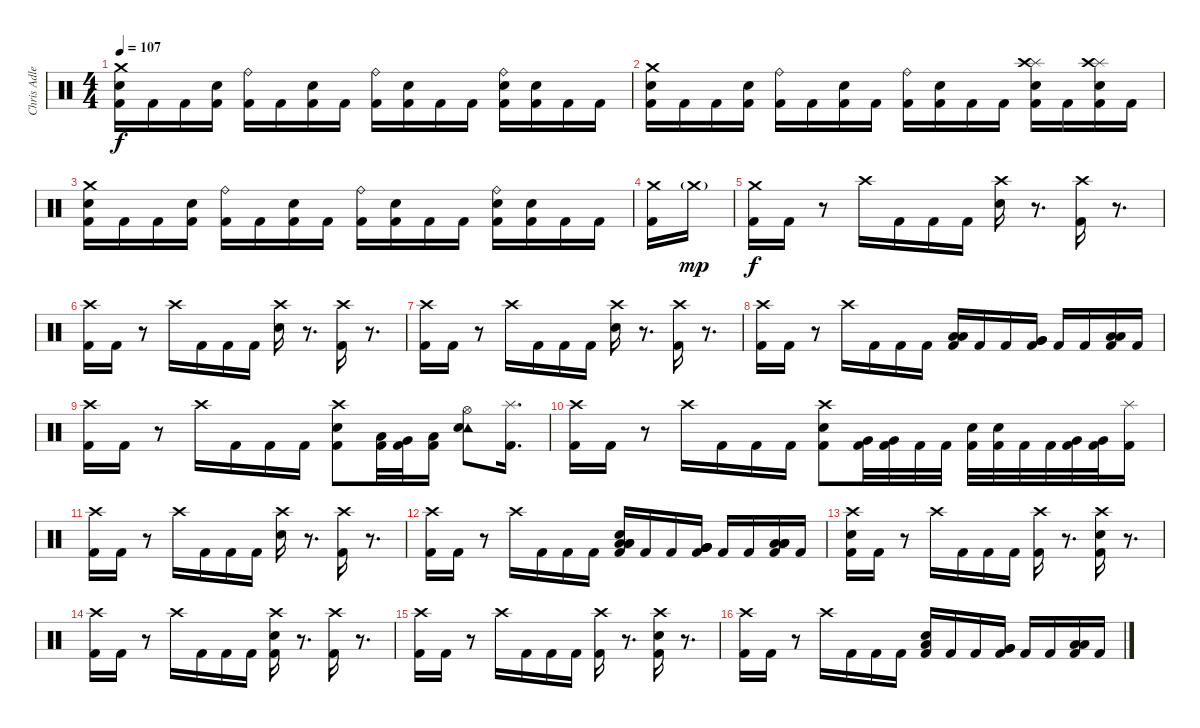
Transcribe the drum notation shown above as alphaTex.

\track ("Chris Adler" "Chris Adle") {instrument percussion}
\staff {score}
\articulation defaults
\ts (4 4)
\tempo 107
\clef neutral
\ks c
("Kick (hit) 2" "Electric Snare (hit)" "Crash medium (hit)").16{dy f} "Kick (hit) 2".16 "Kick (hit) 2".16 ("Kick (hit) 2" "Electric Snare (hit)").16 ("Kick (hit) 2" "Ride (bell)").16 "Kick (hit) 2".16 ("Kick (hit) 2" "Electric Snare (hit)").16 "Kick (hit) 2".16 ("Kick (hit) 2" "Ride (bell)").16 ("Kick (hit) 2" "Electric Snare (hit)").16 "Kick (hit) 2".16 "Kick (hit) 2".16 ("Kick (hit) 2" "Electric Snare (hit)" "Ride (bell)").16 ("Kick (hit) 2" "Electric Snare (hit)").16 "Kick (hit) 2".16 "Kick (hit) 2".16 |
("Kick (hit) 2" "Electric Snare (hit)" "Crash medium (hit)").16 "Kick (hit) 2".16 "Kick (hit) 2".16 ("Kick (hit) 2" "Electric Snare (hit)").16 ("Kick (hit) 2" "Ride (bell)").16 "Kick (hit) 2".16 ("Kick (hit) 2" "Electric Snare (hit)").16 "Kick (hit) 2".16 ("Kick (hit) 2" "Ride (bell)").16 ("Kick (hit) 2" "Electric Snare (hit)").16 "Kick (hit) 2".16 "Kick (hit) 2".16 ("Kick (hit) 2" "Electric Snare (hit)" "Splash (hit)" "Crash high (hit)").16 "Kick (hit) 2".16 ("Kick (hit) 2" "Electric Snare (hit)" "Splash (hit)" "Crash high (hit)").16 "Kick (hit) 2".16 |
("Kick (hit) 2" "Electric Snare (hit)" "Crash medium (hit)").16 "Kick (hit) 2".16 "Kick (hit) 2".16 ("Kick (hit) 2" "Electric Snare (hit)").16 ("Kick (hit) 2" "Ride (bell)").16 "Kick (hit) 2".16 ("Kick (hit) 2" "Electric Snare (hit)").16 "Kick (hit) 2".16 ("Kick (hit) 2" "Ride (bell)").16 ("Kick (hit) 2" "Electric Snare (hit)").16 "Kick (hit) 2".16 "Kick (hit) 2".16 ("Kick (hit) 2" "Electric Snare (hit)" "Ride (bell)").16 ("Kick (hit) 2" "Electric Snare (hit)").16 "Kick (hit) 2".16 "Kick (hit) 2".16 |
("Kick (hit) 2" "Crash medium (hit)").16 "Crash medium (hit)"{g}.16{dy mp} |
("Kick (hit) 2" "Crash medium (hit)").16{dy f} "Kick (hit) 2".16 r.8 "Crash high (hit)".16 "Kick (hit) 2".16 "Kick (hit) 2".16 "Kick (hit) 2".16 ("Electric Snare (hit)" "Crash high (hit)").16 r.8{d} ("Kick (hit) 2" "Crash high (hit)").16 r.8{d} |
("Kick (hit) 2" "Crash high (hit)").16 "Kick (hit) 2".16 r.8 "Crash high (hit)".16 "Kick (hit) 2".16 "Kick (hit) 2".16 "Kick (hit) 2".16 ("Electric Snare (hit)" "Crash high (hit)").16 r.8{d} ("Kick (hit) 2" "Crash high (hit)").16 r.8{d} |
("Kick (hit) 2" "Crash high (hit)").16 "Kick (hit) 2".16 r.8 "Crash high (hit)".16 "Kick (hit) 2".16 "Kick (hit) 2".16 "Kick (hit) 2".16 ("Electric Snare (hit)" "Crash high (hit)").16 r.8{d} ("Kick (hit) 2" "Crash high (hit)").16 r.8{d} |
("Kick (hit) 2" "Crash high (hit)").16 "Kick (hit) 2".16 r.8 "Crash high (hit)".16 "Kick (hit) 2".16 "Kick (hit) 2".16 "Kick (hit) 2".16 ("Kick (hit) 2" "Low Tom (hit)" "Low Tom (hit)").16 "Kick (hit) 2".16 "Kick (hit) 2".16 ("Kick (hit) 2" "Very Low Tom (hit)" "Very Low Tom (hit)").16 "Kick (hit) 2".16 "Kick (hit) 2".16 ("Kick (hit) 2" "Low Floor Tom (hit)" "Low Floor Tom (hit)").16 "Kick (hit) 2".16 |
("Kick (hit) 2" "Crash high (hit)").16 "Kick (hit) 2".16 r.8 "Crash high (hit)".16 "Kick (hit) 2".16 "Kick (hit) 2".16 "Kick (hit) 2".16 ("Kick (hit) 2" "Electric Snare (hit)" "Crash high (hit)").8 ("Kick (hit) 2" "Low Tom (hit)").32 ("Kick (hit) 2" "Very Low Tom (hit)").32 ("Kick (hit) 2" "Low Floor Tom (hit)").16 ("Hi-Hat (open)" "Tambourine (hit)" "Electric Snare (hit)").8 ("Splash (hit)" "Kick (hit) 2").16{d} |
("Kick (hit) 2" "Crash high (hit)").16 "Kick (hit) 2".16 r.8 "Crash high (hit)".16 "Kick (hit) 2".16 "Kick (hit) 2".16 "Kick (hit) 2".16 ("Kick (hit) 2" "Electric Snare (hit)" "Crash high (hit)").8 ("Kick (hit) 2" "Very Low Tom (hit)").32 ("Kick (hit) 2" "Very Low Tom (hit)").32 "Kick (hit) 2".32 "Kick (hit) 2".32 ("Kick (hit) 2" "Electric Snare (hit)").32 ("Kick (hit) 2" "Electric Snare (hit)").32 "Kick (hit) 2".32 "Kick (hit) 2".32 ("Kick (hit) 2" "Very Low Tom (hit)").32 ("Kick (hit) 2" "Very Low Tom (hit)").32 ("Kick (hit) 2" "Splash (hit)").16 |
("Kick (hit) 2" "Crash high (hit)").16 "Kick (hit) 2".16 r.8 "Crash high (hit)".16 "Kick (hit) 2".16 "Kick (hit) 2".16 "Kick (hit) 2".16 ("Electric Snare (hit)" "Crash high (hit)").16 r.8{d} ("Kick (hit) 2" "Crash high (hit)").16 r.8{d} |
("Kick (hit) 2" "Crash high (hit)").16 "Kick (hit) 2".16 r.8 "Crash high (hit)".16 "Kick (hit) 2".16 "Kick (hit) 2".16 "Kick (hit) 2".16 ("Kick (hit) 2" "Electric Snare (hit)" "Low Tom (hit)" "Low Tom (hit)" "Low Tom (hit)").16 "Kick (hit) 2".16 "Kick (hit) 2".16 ("Kick (hit) 2" "Very Low Tom (hit)" "Very Low Tom (hit)" "Very Low Tom (hit)" "Very Low Tom (hit)").16 "Kick (hit) 2".16 "Kick (hit) 2".16 ("Kick (hit) 2" "Low Floor Tom (hit)" "Low Floor Tom (hit)" "Low Floor Tom (hit)" "Low Floor Tom (hit)").16 "Kick (hit) 2".16 |
("Kick (hit) 2" "Electric Snare (hit)" "Crash high (hit)").16 "Kick (hit) 2".16 r.8 "Crash high (hit)".16 "Kick (hit) 2".16 "Kick (hit) 2".16 "Kick (hit) 2".16 ("Kick (hit) 2" "Crash high (hit)").16 r.8{d} ("Kick (hit) 2" "Electric Snare (hit)" "Crash high (hit)").16 r.8{d} |
("Kick (hit) 2" "Crash high (hit)").16 "Kick (hit) 2".16 r.8 "Crash high (hit)".16 "Kick (hit) 2".16 "Kick (hit) 2".16 "Kick (hit) 2".16 ("Kick (hit) 2" "Electric Snare (hit)" "Crash high (hit)").16 r.8{d} ("Kick (hit) 2" "Crash high (hit)").16 r.8{d} |
("Kick (hit) 2" "Crash high (hit)").16 "Kick (hit) 2".16 r.8 "Crash high (hit)".16 "Kick (hit) 2".16 "Kick (hit) 2".16 "Kick (hit) 2".16 ("Kick (hit) 2" "Crash high (hit)").16 r.8{d} ("Kick (hit) 2" "Electric Snare (hit)" "Crash high (hit)").16 r.8{d} |
("Kick (hit) 2" "Crash high (hit)").16 "Kick (hit) 2".16 r.8 "Crash high (hit)".16 "Kick (hit) 2".16 "Kick (hit) 2".16 "Kick (hit) 2".16 ("Kick (hit) 2" "Electric Snare (hit)" "Low Tom (hit)").16 "Kick (hit) 2".16 "Kick (hit) 2".16 ("Kick (hit) 2" "Very Low Tom (hit)" "Very Low Tom (hit)").16 "Kick (hit) 2".16 "Kick (hit) 2".16 ("Kick (hit) 2" "Low Floor Tom (hit)" "Low Floor Tom (hit)").16 "Kick (hit) 2".16
